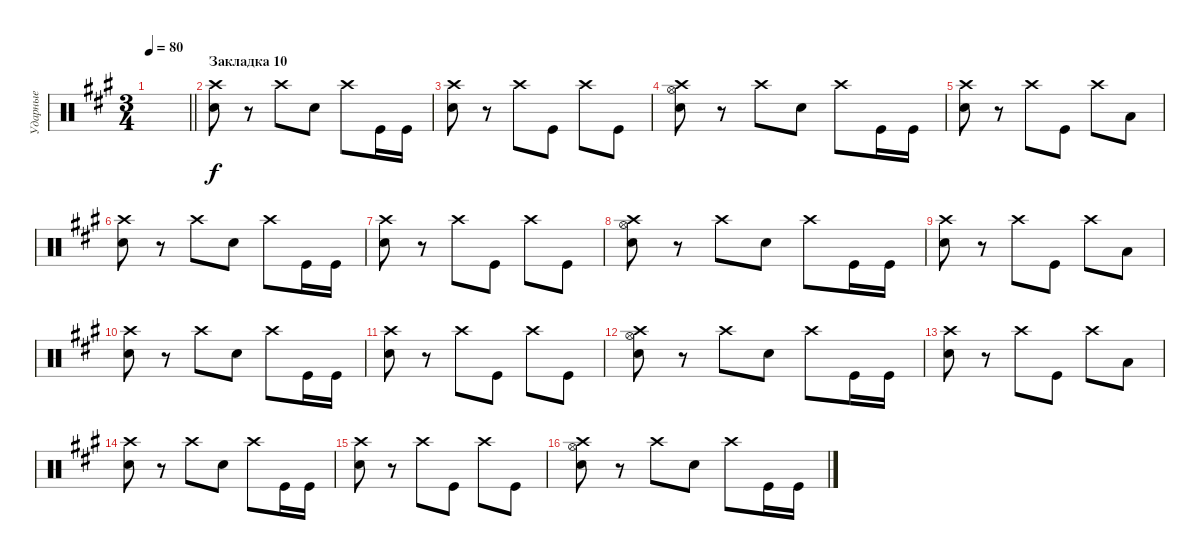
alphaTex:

\track ("Ударные" "Ударные") {instrument percussion}
\staff {score}
\articulation defaults
\ts (3 4)
\tempo 80
\clef neutral
\barLineRight lightlight
\ks f#minor
|
\section ("" "Закладка 10")
("Snare (hit) 2" "Crash high (hit)").8 r.8 "Crash high (hit)".8 "Snare (hit) 2".8 "Crash high (hit)".8 "Kick (hit)".16 "Kick (hit)".16 |
("Snare (hit) 2" "Crash high (hit)").8 r.8 "Crash high (hit)".8 "Kick (hit)".8 "Crash high (hit)".8 "Kick (hit)".8 |
("Snare (hit) 2" "Hi-Hat (open)" "Crash high (hit)").8 r.8 "Crash high (hit)".8 "Snare (hit) 2".8 "Crash high (hit)".8 "Kick (hit)".16 "Kick (hit)".16 |
("Snare (hit) 2" "Crash high (hit)").8 r.8 "Crash high (hit)".8 "Kick (hit)".8 "Crash high (hit)".8 "Low Tom (hit)".8 |
("Snare (hit) 2" "Crash high (hit)").8 r.8 "Crash high (hit)".8 "Snare (hit) 2".8 "Crash high (hit)".8 "Kick (hit)".16 "Kick (hit)".16 |
("Snare (hit) 2" "Crash high (hit)").8 r.8 "Crash high (hit)".8 "Kick (hit)".8 "Crash high (hit)".8 "Kick (hit)".8 |
("Snare (hit) 2" "Hi-Hat (open)" "Crash high (hit)").8 r.8 "Crash high (hit)".8 "Snare (hit) 2".8 "Crash high (hit)".8 "Kick (hit)".16 "Kick (hit)".16 |
("Snare (hit) 2" "Crash high (hit)").8 r.8 "Crash high (hit)".8 "Kick (hit)".8 "Crash high (hit)".8 "Low Tom (hit)".8 |
("Snare (hit) 2" "Crash high (hit)").8 r.8 "Crash high (hit)".8 "Snare (hit) 2".8 "Crash high (hit)".8 "Kick (hit)".16 "Kick (hit)".16 |
("Snare (hit) 2" "Crash high (hit)").8 r.8 "Crash high (hit)".8 "Kick (hit)".8 "Crash high (hit)".8 "Kick (hit)".8 |
("Snare (hit) 2" "Hi-Hat (open)" "Crash high (hit)").8 r.8 "Crash high (hit)".8 "Snare (hit) 2".8 "Crash high (hit)".8 "Kick (hit)".16 "Kick (hit)".16 |
("Snare (hit) 2" "Crash high (hit)").8 r.8 "Crash high (hit)".8 "Kick (hit)".8 "Crash high (hit)".8 "Low Tom (hit)".8 |
("Snare (hit) 2" "Crash high (hit)").8 r.8 "Crash high (hit)".8 "Snare (hit) 2".8 "Crash high (hit)".8 "Kick (hit)".16 "Kick (hit)".16 |
("Snare (hit) 2" "Crash high (hit)").8 r.8 "Crash high (hit)".8 "Kick (hit)".8 "Crash high (hit)".8 "Kick (hit)".8 |
("Snare (hit) 2" "Hi-Hat (open)" "Crash high (hit)").8 r.8 "Crash high (hit)".8 "Snare (hit) 2".8 "Crash high (hit)".8 "Kick (hit)".16 "Kick (hit)".16
